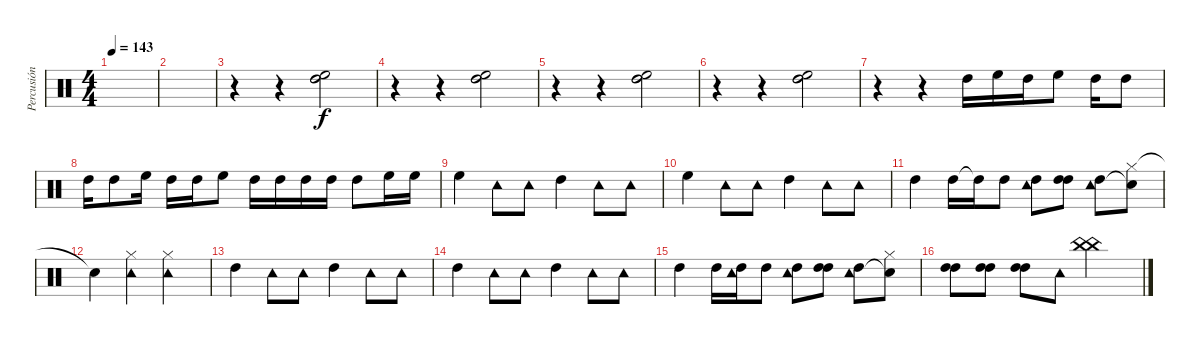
\track ("Percusión" "Percusión") {instrument percussion}
\staff {score}
\articulation defaults
\ts (4 4)
\tempo 143
\clef neutral
\ks c
|
|
r.4 r.4 ("High Tom (hit)" "High Tom (hit)" "High Floor Tom (hit)").2 |
r.4 r.4 ("High Tom (hit)" "High Tom (hit)" "High Floor Tom (hit)").2 |
r.4 r.4 ("High Tom (hit)" "High Tom (hit)" "High Floor Tom (hit)").2 |
r.4 r.4 ("High Tom (hit)" "High Tom (hit)" "High Floor Tom (hit)").2 |
r.4 r.4 "High Tom (hit)".16 "High Floor Tom (hit)".16 "High Tom (hit)".16 "High Floor Tom (hit)".8 "High Tom (hit)".16 "High Tom (hit)".8 |
"High Tom (hit)".16 "High Tom (hit)".8 "High Floor Tom (hit)".16 "High Tom (hit)".16 "High Tom (hit)".16 "High Floor Tom (hit)".8 "High Tom (hit)".16 "High Tom (hit)".16 "High Tom (hit)".16 "High Tom (hit)".16 "High Tom (hit)".8 "High Floor Tom (hit)".16 "High Floor Tom (hit)".16 |
"High Floor Tom (hit)".4 "Tambourine (hit)".8 "Tambourine (hit)".8 "High Tom (hit)".4 "Tambourine (hit)".8 "Tambourine (hit)".8 |
"High Floor Tom (hit)".4 "Tambourine (hit)".8 "Tambourine (hit)".8 "High Tom (hit)".4 "Tambourine (hit)".8 "Tambourine (hit)".8 |
"High Tom (hit)".4 "High Tom (hit)".16 "High Tom (hit)"{t}.16 "High Tom (hit)".8 ("High Tom (hit)" "Tambourine (hit)").8 ("High Tom (hit)" "High Tom (hit)").8 ("High Tom (hit)" "Tambourine (hit)").8 ("Hi-Hat (closed)" "Snare (hit)"{t}).8 |
"Snare (hit)"{t}.4 ("Hi-Hat (closed)" "Tambourine (hit)").4 ("Hi-Hat (closed)" "Tambourine (hit)").2 |
"High Tom (hit)".4 "Tambourine (hit)".8 "Tambourine (hit)".8 "High Tom (hit)".4 "Tambourine (hit)".8 "Tambourine (hit)".8 |
"High Tom (hit)".4 "Tambourine (hit)".8 "Tambourine (hit)".8 "High Tom (hit)".4 "Tambourine (hit)".8 "Tambourine (hit)".8 |
"High Tom (hit)".4 "High Tom (hit)".16 ("High Tom (hit)" "Tambourine (hit)").16 "High Tom (hit)".8 ("High Tom (hit)" "Tambourine (hit)").8 ("High Tom (hit)" "High Tom (hit)").8 ("High Tom (hit)" "Tambourine (hit)").8 ("Hi-Hat (closed)" "Snare (hit)"{t}).8 |
("High Tom (hit)" "High Tom (hit)").8 ("High Tom (hit)" "High Tom (hit)").8 ("High Tom (hit)" "High Tom (hit)").8 "Tambourine (hit)".8 ("China (hit)" "China (hit)").2
